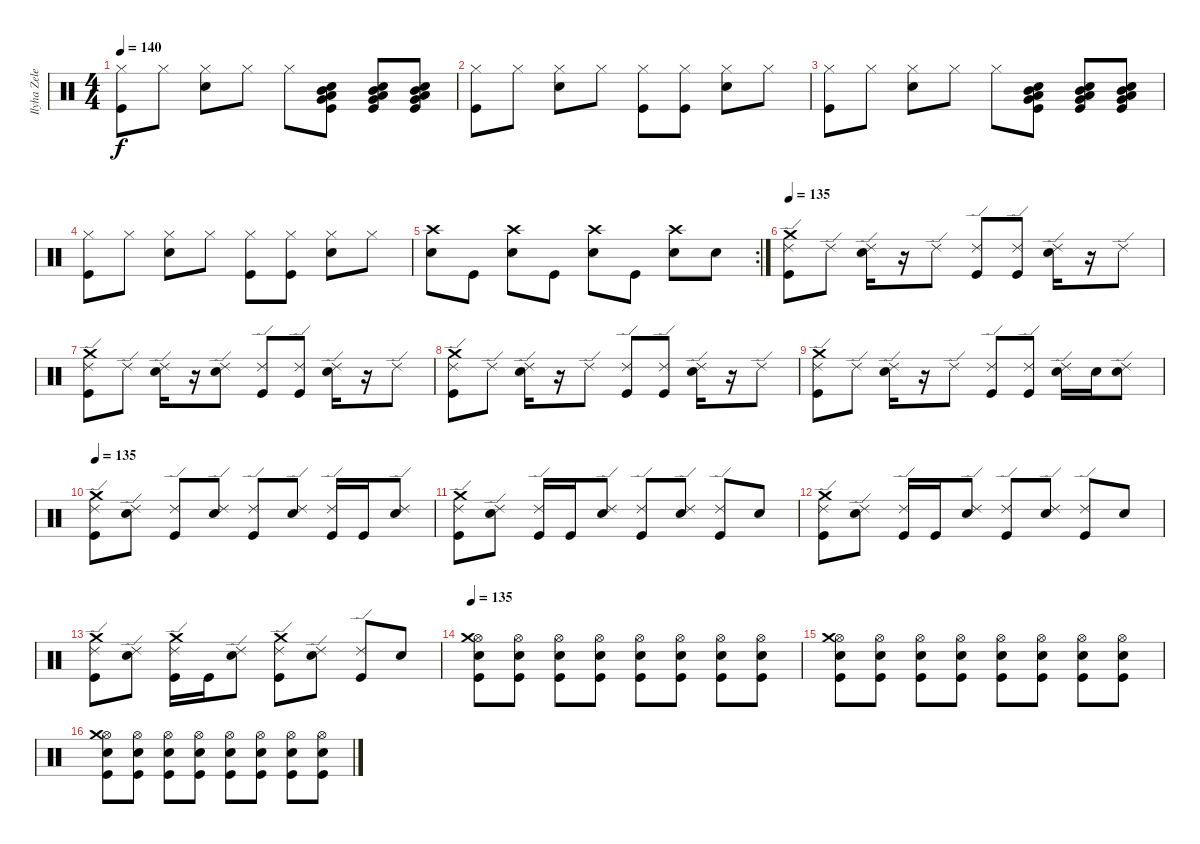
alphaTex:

\track ("Ilyha Zelenyi (DRUMS)" "Ilyha Zele") {instrument percussion}
\staff {score}
\articulation defaults
\ts (4 4)
\tempo 140
\clef neutral
\ks c
("Hi-Hat (closed)" "Kick (hit)").8{dy f} "Hi-Hat (closed)".8 ("Hi-Hat (closed)" "Electric Snare (hit)").8 "Hi-Hat (closed)".8 "Hi-Hat (closed)".8 ("Electric Snare (hit)" "Mid Tom (hit)" "Very Low Tom (hit)" "Low Floor Tom (hit)" "Kick (hit)").8 ("Electric Snare (hit)" "Mid Tom (hit)" "Very Low Tom (hit)" "Low Floor Tom (hit)" "Kick (hit)").8 ("Electric Snare (hit)" "Mid Tom (hit)" "Very Low Tom (hit)" "Low Floor Tom (hit)" "Kick (hit)").8 |
("Hi-Hat (closed)" "Kick (hit)").8 "Hi-Hat (closed)".8 ("Hi-Hat (closed)" "Electric Snare (hit)").8 "Hi-Hat (closed)".8 ("Hi-Hat (closed)" "Kick (hit)").8 ("Hi-Hat (closed)" "Kick (hit)").8 ("Hi-Hat (closed)" "Electric Snare (hit)").8 "Hi-Hat (closed)".8 |
("Hi-Hat (closed)" "Kick (hit)").8 "Hi-Hat (closed)".8 ("Hi-Hat (closed)" "Electric Snare (hit)").8 "Hi-Hat (closed)".8 "Hi-Hat (closed)".8 ("Electric Snare (hit)" "Mid Tom (hit)" "Very Low Tom (hit)" "Low Floor Tom (hit)" "Kick (hit)").8 ("Electric Snare (hit)" "Mid Tom (hit)" "Very Low Tom (hit)" "Low Floor Tom (hit)" "Kick (hit)").8 ("Electric Snare (hit)" "Mid Tom (hit)" "Very Low Tom (hit)" "Low Floor Tom (hit)" "Kick (hit)").8 |
("Hi-Hat (closed)" "Kick (hit)").8 "Hi-Hat (closed)".8 ("Hi-Hat (closed)" "Electric Snare (hit)").8 "Hi-Hat (closed)".8 ("Hi-Hat (closed)" "Kick (hit)").8 ("Hi-Hat (closed)" "Kick (hit)").8 ("Hi-Hat (closed)" "Electric Snare (hit)").8 "Hi-Hat (closed)".8 |
\rc 2
("Crash high (hit)" "Electric Snare (hit)").8 "Kick (hit)".8 ("Crash high (hit)" "Electric Snare (hit)").8 "Kick (hit)".8 ("Crash high (hit)" "Electric Snare (hit)").8 "Kick (hit)".8 ("Crash high (hit)" "Electric Snare (hit)").8 "Electric Snare (hit)".8 |
\tempo 135
("Ride (edge) 2" "Crash medium (hit)" "Kick (hit)").8 "Ride (edge) 2".8 ("Ride (edge) 2" "Electric Snare (hit)").16 r.16 "Ride (edge) 2".8 ("Ride (edge) 2" "Kick (hit)").8 ("Ride (edge) 2" "Kick (hit)").8 ("Ride (edge) 2" "Electric Snare (hit)").16 r.16 "Ride (edge) 2".8 |
("Ride (edge) 2" "Crash medium (hit)" "Kick (hit)").8 "Ride (edge) 2".8 ("Ride (edge) 2" "Electric Snare (hit)").16 r.16 ("Ride (edge) 2" "Snare (hit)").8 ("Ride (edge) 2" "Kick (hit)").8 ("Ride (edge) 2" "Kick (hit)").8 ("Ride (edge) 2" "Electric Snare (hit)").16 r.16 "Ride (edge) 2".8 |
("Ride (edge) 2" "Crash medium (hit)" "Kick (hit)").8 "Ride (edge) 2".8 ("Ride (edge) 2" "Electric Snare (hit)").16 r.16 "Ride (edge) 2".8 ("Ride (edge) 2" "Kick (hit)").8 ("Ride (edge) 2" "Kick (hit)").8 ("Ride (edge) 2" "Electric Snare (hit)").16 r.16 "Ride (edge) 2".8 |
("Ride (edge) 2" "Crash medium (hit)" "Kick (hit)").8 "Ride (edge) 2".8 ("Ride (edge) 2" "Electric Snare (hit)").16 r.16 "Ride (edge) 2".8 ("Ride (edge) 2" "Kick (hit)").8 ("Ride (edge) 2" "Kick (hit)").8 ("Ride (edge) 2" "Electric Snare (hit)").16 "Electric Snare (hit)".16 ("Ride (edge) 2" "Electric Snare (hit)").8 |
\tempo 135
("Ride (edge) 2" "Crash medium (hit)" "Kick (hit)").8 ("Ride (edge) 2" "Electric Snare (hit)").8 ("Ride (edge) 2" "Kick (hit)").8 ("Ride (edge) 2" "Electric Snare (hit)").8 ("Ride (edge) 2" "Kick (hit)").8 ("Ride (edge) 2" "Electric Snare (hit)").8 ("Ride (edge) 2" "Kick (hit)").16 "Kick (hit)".16 ("Ride (edge) 2" "Electric Snare (hit)").8 |
("Ride (edge) 2" "Crash medium (hit)" "Kick (hit)").8 ("Ride (edge) 2" "Electric Snare (hit)").8 ("Ride (edge) 2" "Kick (hit)").16 "Kick (hit)".16 ("Ride (edge) 2" "Electric Snare (hit)").8 ("Ride (edge) 2" "Kick (hit)").8 ("Ride (edge) 2" "Electric Snare (hit)").8 ("Ride (edge) 2" "Kick (hit)").8 "Electric Snare (hit)".8 |
("Ride (edge) 2" "Crash medium (hit)" "Kick (hit)").8 ("Ride (edge) 2" "Electric Snare (hit)").8 ("Ride (edge) 2" "Kick (hit)").16 "Kick (hit)".16 ("Ride (edge) 2" "Electric Snare (hit)").8 ("Ride (edge) 2" "Kick (hit)").8 ("Ride (edge) 2" "Electric Snare (hit)").8 ("Ride (edge) 2" "Kick (hit)").8 "Electric Snare (hit)".8 |
("Ride (edge) 2" "Crash medium (hit)" "Kick (hit)").8 ("Ride (edge) 2" "Electric Snare (hit)").8 ("Ride (edge) 2" "Crash medium (hit)" "Kick (hit)").16 "Kick (hit)".16 ("Ride (edge) 2" "Electric Snare (hit)").8 ("Ride (edge) 2" "Crash medium (hit)" "Kick (hit)").8 ("Ride (edge) 2" "Electric Snare (hit)").8 ("Ride (edge) 2" "Kick (hit)").8 "Electric Snare (hit)".8 |
\tempo 135
("Hi-Hat (open)" "Crash medium (hit)" "Kick (hit)" "Electric Snare (hit)").8 ("Hi-Hat (open)" "Kick (hit)" "Electric Snare (hit)").8 ("Hi-Hat (open)" "Kick (hit)" "Electric Snare (hit)").8 ("Hi-Hat (open)" "Kick (hit)" "Electric Snare (hit)").8 ("Hi-Hat (open)" "Kick (hit)" "Electric Snare (hit)").8 ("Hi-Hat (open)" "Kick (hit)" "Electric Snare (hit)").8 ("Hi-Hat (open)" "Kick (hit)" "Electric Snare (hit)").8 ("Hi-Hat (open)" "Kick (hit)" "Electric Snare (hit)").8 |
("Hi-Hat (open)" "Crash medium (hit)" "Kick (hit)" "Electric Snare (hit)").8 ("Hi-Hat (open)" "Kick (hit)" "Electric Snare (hit)").8 ("Hi-Hat (open)" "Kick (hit)" "Electric Snare (hit)").8 ("Hi-Hat (open)" "Kick (hit)" "Electric Snare (hit)").8 ("Hi-Hat (open)" "Kick (hit)" "Electric Snare (hit)").8 ("Hi-Hat (open)" "Kick (hit)" "Electric Snare (hit)").8 ("Hi-Hat (open)" "Kick (hit)" "Electric Snare (hit)").8 ("Hi-Hat (open)" "Kick (hit)" "Electric Snare (hit)").8 |
("Hi-Hat (open)" "Crash medium (hit)" "Kick (hit)" "Electric Snare (hit)").8 ("Hi-Hat (open)" "Kick (hit)" "Electric Snare (hit)").8 ("Hi-Hat (open)" "Kick (hit)" "Electric Snare (hit)").8 ("Hi-Hat (open)" "Kick (hit)" "Electric Snare (hit)").8 ("Hi-Hat (open)" "Kick (hit)" "Electric Snare (hit)").8 ("Hi-Hat (open)" "Kick (hit)" "Electric Snare (hit)").8 ("Hi-Hat (open)" "Kick (hit)" "Electric Snare (hit)").8 ("Hi-Hat (open)" "Kick (hit)" "Electric Snare (hit)").8
